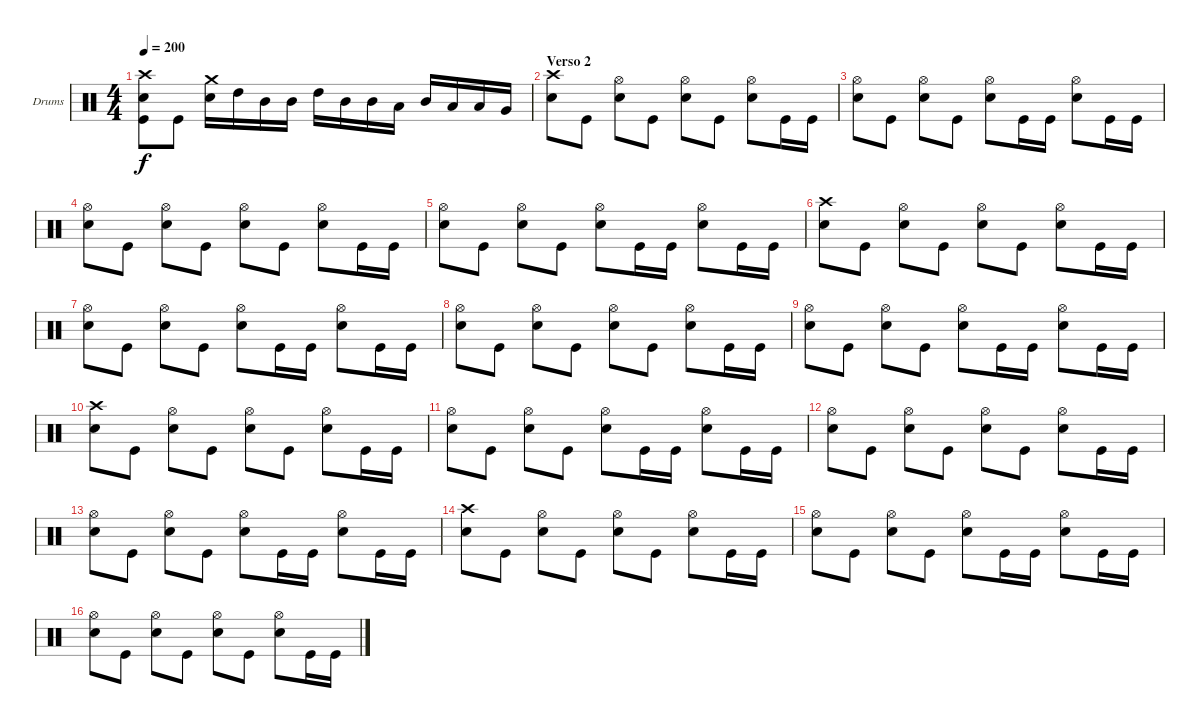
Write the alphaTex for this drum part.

\defaultSystemsLayout 4
\bracketExtendMode groupsimilarinstruments
\firstSystemTrackNameOrientation horizontal
\otherSystemsTrackNameOrientation horizontal
\track ("Drumkit" "Drums") {instrument percussion}
\staff {score}
\articulation defaults
\ts (4 4)
\tempo 200
\clef neutral
\ks c
("Crash high (hit)" "Snare (hit) 2" "Kick (hit)").8{dy f} "Kick (hit)".8 ("Crash medium (hit)" "Snare (hit) 2").16 "High Tom (hit)".16 "Mid Tom (hit)".16 "Mid Tom (hit)".16 "High Tom (hit)".16 "Mid Tom (hit)".16 "Mid Tom (hit)".16 "Low Tom (hit)".16 "Mid Tom (hit)".16 "Low Tom (hit)".16 "Low Tom (hit)".16 "Very Low Tom (hit)".16 |
\section ("" "Verso 2")
("Snare (hit) 2" "Crash high (hit)").8 "Kick (hit)".8 ("Snare (hit) 2" "Hi-Hat (open)").8 "Kick (hit)".8 ("Snare (hit) 2" "Hi-Hat (open)").8 "Kick (hit)".8 ("Snare (hit) 2" "Hi-Hat (open)").8 "Kick (hit)".16 "Kick (hit)".16 |
("Snare (hit) 2" "Hi-Hat (open)").8 "Kick (hit)".8 ("Hi-Hat (open)" "Snare (hit) 2").8 "Kick (hit)".8 ("Snare (hit) 2" "Hi-Hat (open)").8 "Kick (hit)".16 "Kick (hit)".16 ("Snare (hit) 2" "Hi-Hat (open)").8 "Kick (hit)".16 "Kick (hit)".16 |
("Hi-Hat (open)" "Snare (hit) 2").8 "Kick (hit)".8 ("Snare (hit) 2" "Hi-Hat (open)").8 "Kick (hit)".8 ("Snare (hit) 2" "Hi-Hat (open)").8 "Kick (hit)".8 ("Snare (hit) 2" "Hi-Hat (open)").8 "Kick (hit)".16 "Kick (hit)".16 |
("Snare (hit) 2" "Hi-Hat (open)").8 "Kick (hit)".8 ("Hi-Hat (open)" "Snare (hit) 2").8 "Kick (hit)".8 ("Snare (hit) 2" "Hi-Hat (open)").8 "Kick (hit)".16 "Kick (hit)".16 ("Snare (hit) 2" "Hi-Hat (open)").8 "Kick (hit)".16 "Kick (hit)".16 |
("Snare (hit) 2" "Crash high (hit)").8 "Kick (hit)".8 ("Snare (hit) 2" "Hi-Hat (open)").8 "Kick (hit)".8 ("Snare (hit) 2" "Hi-Hat (open)").8 "Kick (hit)".8 ("Snare (hit) 2" "Hi-Hat (open)").8 "Kick (hit)".16 "Kick (hit)".16 |
("Snare (hit) 2" "Hi-Hat (open)").8 "Kick (hit)".8 ("Hi-Hat (open)" "Snare (hit) 2").8 "Kick (hit)".8 ("Snare (hit) 2" "Hi-Hat (open)").8 "Kick (hit)".16 "Kick (hit)".16 ("Snare (hit) 2" "Hi-Hat (open)").8 "Kick (hit)".16 "Kick (hit)".16 |
("Hi-Hat (open)" "Snare (hit) 2").8 "Kick (hit)".8 ("Snare (hit) 2" "Hi-Hat (open)").8 "Kick (hit)".8 ("Snare (hit) 2" "Hi-Hat (open)").8 "Kick (hit)".8 ("Snare (hit) 2" "Hi-Hat (open)").8 "Kick (hit)".16 "Kick (hit)".16 |
("Snare (hit) 2" "Hi-Hat (open)").8 "Kick (hit)".8 ("Hi-Hat (open)" "Snare (hit) 2").8 "Kick (hit)".8 ("Snare (hit) 2" "Hi-Hat (open)").8 "Kick (hit)".16 "Kick (hit)".16 ("Snare (hit) 2" "Hi-Hat (open)").8 "Kick (hit)".16 "Kick (hit)".16 |
("Snare (hit) 2" "Crash high (hit)").8 "Kick (hit)".8 ("Snare (hit) 2" "Hi-Hat (open)").8 "Kick (hit)".8 ("Snare (hit) 2" "Hi-Hat (open)").8 "Kick (hit)".8 ("Snare (hit) 2" "Hi-Hat (open)").8 "Kick (hit)".16 "Kick (hit)".16 |
("Snare (hit) 2" "Hi-Hat (open)").8 "Kick (hit)".8 ("Hi-Hat (open)" "Snare (hit) 2").8 "Kick (hit)".8 ("Snare (hit) 2" "Hi-Hat (open)").8 "Kick (hit)".16 "Kick (hit)".16 ("Snare (hit) 2" "Hi-Hat (open)").8 "Kick (hit)".16 "Kick (hit)".16 |
("Hi-Hat (open)" "Snare (hit) 2").8 "Kick (hit)".8 ("Snare (hit) 2" "Hi-Hat (open)").8 "Kick (hit)".8 ("Snare (hit) 2" "Hi-Hat (open)").8 "Kick (hit)".8 ("Snare (hit) 2" "Hi-Hat (open)").8 "Kick (hit)".16 "Kick (hit)".16 |
("Snare (hit) 2" "Hi-Hat (open)").8 "Kick (hit)".8 ("Hi-Hat (open)" "Snare (hit) 2").8 "Kick (hit)".8 ("Snare (hit) 2" "Hi-Hat (open)").8 "Kick (hit)".16 "Kick (hit)".16 ("Snare (hit) 2" "Hi-Hat (open)").8 "Kick (hit)".16 "Kick (hit)".16 |
("Snare (hit) 2" "Crash high (hit)").8 "Kick (hit)".8 ("Snare (hit) 2" "Hi-Hat (open)").8 "Kick (hit)".8 ("Snare (hit) 2" "Hi-Hat (open)").8 "Kick (hit)".8 ("Snare (hit) 2" "Hi-Hat (open)").8 "Kick (hit)".16 "Kick (hit)".16 |
("Snare (hit) 2" "Hi-Hat (open)").8 "Kick (hit)".8 ("Hi-Hat (open)" "Snare (hit) 2").8 "Kick (hit)".8 ("Snare (hit) 2" "Hi-Hat (open)").8 "Kick (hit)".16 "Kick (hit)".16 ("Snare (hit) 2" "Hi-Hat (open)").8 "Kick (hit)".16 "Kick (hit)".16 |
("Hi-Hat (open)" "Snare (hit) 2").8 "Kick (hit)".8 ("Snare (hit) 2" "Hi-Hat (open)").8 "Kick (hit)".8 ("Snare (hit) 2" "Hi-Hat (open)").8 "Kick (hit)".8 ("Snare (hit) 2" "Hi-Hat (open)").8 "Kick (hit)".16 "Kick (hit)".16
